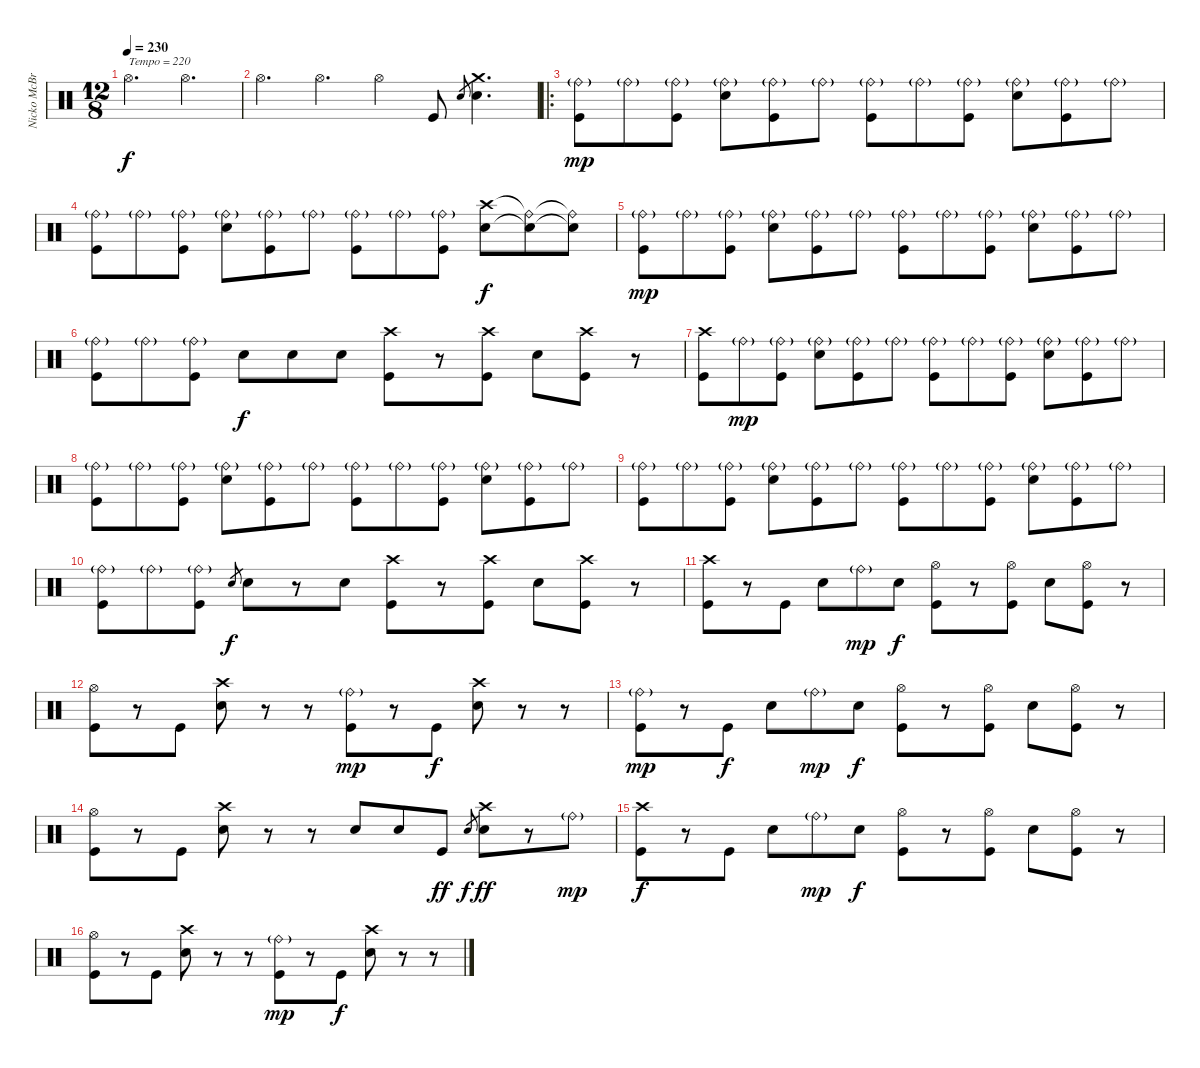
\track ("Nicko McBrain" "Nicko McBr") {instrument percussion}
\staff {score}
\articulation defaults
\ts (12 8)
\tempo 230
\clef neutral
\ks c "Hi-Hat (open)".2{d txt "Tempo = 220" dy f} "Hi-Hat (open)".2{d}
|
"Hi-Hat (open)".4{d} "Hi-Hat (open)".4{d} "Hi-Hat (open)".4 "Kick (hit)".8 "Electric Snare (hit)".8{gr} ("Crash medium (hit)" "Electric Snare (hit)").4{d} |
\ro
("Ride (bell)"{g} "Kick (hit)").8{dy mp} "Ride (bell)"{g}.8 ("Ride (bell)"{g} "Kick (hit)").8 ("Ride (bell)"{g} "Electric Snare (hit)").8 ("Ride (bell)"{g} "Kick (hit)").8 "Ride (bell)"{g}.8 ("Ride (bell)"{g} "Kick (hit)").8 "Ride (bell)"{g}.8 ("Ride (bell)"{g} "Kick (hit)").8 ("Ride (bell)"{g} "Electric Snare (hit)").8 ("Ride (bell)"{g} "Kick (hit)").8 "Ride (bell)"{g}.8 |
("Ride (bell)"{g} "Kick (hit)").8 "Ride (bell)"{g}.8 ("Ride (bell)"{g} "Kick (hit)").8 ("Ride (bell)"{g} "Electric Snare (hit)").8 ("Ride (bell)"{g} "Kick (hit)").8 "Ride (bell)"{g}.8 ("Ride (bell)"{g} "Kick (hit)").8 "Ride (bell)"{g}.8 ("Ride (bell)"{g} "Kick (hit)").8 ("Crash high (hit)" "Electric Snare (hit)").8{dy f} ("Ride (bell)"{t} "Snare (hit)"{t}).8 ("Ride (bell)"{t} "Snare (hit)"{t}).8 |
("Ride (bell)"{g} "Kick (hit)").8{dy mp} "Ride (bell)"{g}.8 ("Ride (bell)"{g} "Kick (hit)").8 ("Ride (bell)"{g} "Electric Snare (hit)").8 ("Ride (bell)"{g} "Kick (hit)").8 "Ride (bell)"{g}.8 ("Ride (bell)"{g} "Kick (hit)").8 "Ride (bell)"{g}.8 ("Ride (bell)"{g} "Kick (hit)").8 ("Ride (bell)"{g} "Electric Snare (hit)").8 ("Ride (bell)"{g} "Kick (hit)").8 "Ride (bell)"{g}.8 |
("Ride (bell)"{g} "Kick (hit)").8 "Ride (bell)"{g}.8 ("Ride (bell)"{g} "Kick (hit)").8 "Electric Snare (hit)".8{dy f} "Electric Snare (hit)".8 "Electric Snare (hit)".8 ("Crash high (hit)" "Kick (hit)").8 r.8 ("Crash high (hit)" "Kick (hit)").8 "Electric Snare (hit)".8 ("Crash high (hit)" "Kick (hit)").8 r.8 |
("Crash high (hit)" "Kick (hit)").8 "Ride (bell)"{g}.8{dy mp} ("Ride (bell)"{g} "Kick (hit)").8 ("Ride (bell)"{g} "Electric Snare (hit)").8 ("Ride (bell)"{g} "Kick (hit)").8 "Ride (bell)"{g}.8 ("Ride (bell)"{g} "Kick (hit)").8 "Ride (bell)"{g}.8 ("Ride (bell)"{g} "Kick (hit)").8 ("Ride (bell)"{g} "Electric Snare (hit)").8 ("Ride (bell)"{g} "Kick (hit)").8 "Ride (bell)"{g}.8 |
("Ride (bell)"{g} "Kick (hit)").8 "Ride (bell)"{g}.8 ("Ride (bell)"{g} "Kick (hit)").8 ("Ride (bell)"{g} "Electric Snare (hit)").8 ("Ride (bell)"{g} "Kick (hit)").8 "Ride (bell)"{g}.8 ("Ride (bell)"{g} "Kick (hit)").8 "Ride (bell)"{g}.8 ("Ride (bell)"{g} "Kick (hit)").8 ("Ride (bell)"{g} "Electric Snare (hit)").8 ("Ride (bell)"{g} "Kick (hit)").8 "Ride (bell)"{g}.8 |
("Ride (bell)"{g} "Kick (hit)").8 "Ride (bell)"{g}.8 ("Ride (bell)"{g} "Kick (hit)").8 ("Ride (bell)"{g} "Electric Snare (hit)").8 ("Ride (bell)"{g} "Kick (hit)").8 "Ride (bell)"{g}.8 ("Ride (bell)"{g} "Kick (hit)").8 "Ride (bell)"{g}.8 ("Ride (bell)"{g} "Kick (hit)").8 ("Ride (bell)"{g} "Electric Snare (hit)").8 ("Ride (bell)"{g} "Kick (hit)").8 "Ride (bell)"{g}.8 |
("Ride (bell)"{g} "Kick (hit)").8 "Ride (bell)"{g}.8 ("Ride (bell)"{g} "Kick (hit)").8 "Electric Snare (hit)".8{gr dy f} "Electric Snare (hit)".8 r.8 "Electric Snare (hit)".8 ("Crash high (hit)" "Kick (hit)").8 r.8 ("Crash high (hit)" "Kick (hit)").8 "Electric Snare (hit)".8 ("Crash high (hit)" "Kick (hit)").8 r.8 |
("Crash high (hit)" "Kick (hit)").8 r.8 "Kick (hit)".8 "Electric Snare (hit)".8 "Ride (bell)"{g}.8{dy mp} "Electric Snare (hit)".8{dy f} ("Hi-Hat (open)" "Kick (hit)").8 r.8 ("Hi-Hat (open)" "Kick (hit)").8 "Electric Snare (hit)".8 ("Hi-Hat (open)" "Kick (hit)").8 r.8 |
("Hi-Hat (open)" "Kick (hit)").8 r.8 "Kick (hit)".8 ("Crash high (hit)" "Electric Snare (hit)").8 r.8 r.8 ("Ride (bell)"{g} "Kick (hit)").8{dy mp} r.8 "Kick (hit)".8{dy f} ("Crash high (hit)" "Electric Snare (hit)").8 r.8 r.8 |
("Ride (bell)"{g} "Kick (hit)").8{dy mp} r.8 "Kick (hit)".8{dy f} "Electric Snare (hit)".8 "Ride (bell)"{g}.8{dy mp} "Electric Snare (hit)".8{dy f} ("Hi-Hat (open)" "Kick (hit)").8 r.8 ("Hi-Hat (open)" "Kick (hit)").8 "Electric Snare (hit)".8 ("Hi-Hat (open)" "Kick (hit)").8 r.8 |
("Hi-Hat (open)" "Kick (hit)").8 r.8 "Kick (hit)".8 ("Crash high (hit)" "Electric Snare (hit)").8 r.8 r.8 "Electric Snare (hit)".8 "Electric Snare (hit)".8 "Kick (hit)".8{dy ff} "Electric Snare (hit)".8{gr dy f} ("Crash high (hit)" "Electric Snare (hit)").8{dy ff} r.8 "Ride (bell)"{g}.8{dy mp} |
("Crash high (hit)" "Kick (hit)").8{dy f} r.8 "Kick (hit)".8 "Electric Snare (hit)".8 "Ride (bell)"{g}.8{dy mp} "Electric Snare (hit)".8{dy f} ("Hi-Hat (open)" "Kick (hit)").8 r.8 ("Hi-Hat (open)" "Kick (hit)").8 "Electric Snare (hit)".8 ("Hi-Hat (open)" "Kick (hit)").8 r.8 |
("Hi-Hat (open)" "Kick (hit)").8 r.8 "Kick (hit)".8 ("Crash high (hit)" "Electric Snare (hit)").8 r.8 r.8 ("Ride (bell)"{g} "Kick (hit)").8{dy mp} r.8 "Kick (hit)".8{dy f} ("Crash high (hit)" "Electric Snare (hit)").8 r.8 r.8
